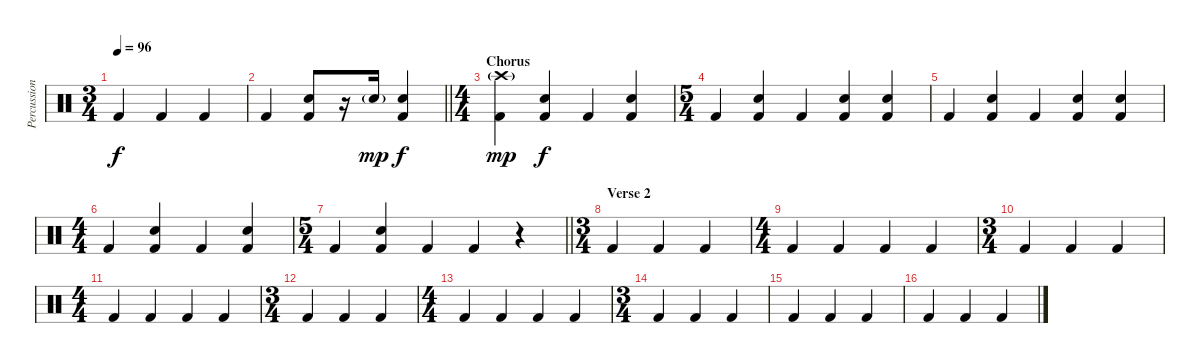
\track ("Percussion" "Percussion") {instrument percussion}
\staff {score}
\articulation defaults
\ts (3 4)
\tempo 96
\clef neutral
\ks c "Kick (hit) 2".4{dy f} "Kick (hit) 2".4 "Kick (hit) 2".4
|
\barLineRight lightlight "Kick (hit) 2".4
("Snare (hit) 2" "Kick (hit) 2").8 r.16 "Snare (hit) 2"{g}.16{dy mp} ("Snare (hit) 2" "Kick (hit) 2").4{dy f} |
\ts (4 4)
\section ("" "Chorus")
("Crash high (hit)"{g} "Kick (hit) 2").4{dy mp} ("Snare (hit) 2" "Kick (hit) 2").4{dy f} "Kick (hit) 2".4 ("Snare (hit) 2" "Kick (hit) 2").4 |
\ts (5 4)
"Kick (hit) 2".4 ("Snare (hit) 2" "Kick (hit) 2").4 "Kick (hit) 2".4 ("Snare (hit) 2" "Kick (hit) 2").4 ("Snare (hit) 2" "Kick (hit) 2").4 |
"Kick (hit) 2".4 ("Snare (hit) 2" "Kick (hit) 2").4 "Kick (hit) 2".4 ("Snare (hit) 2" "Kick (hit) 2").4 ("Snare (hit) 2" "Kick (hit) 2").4 |
\ts (4 4)
"Kick (hit) 2".4 ("Snare (hit) 2" "Kick (hit) 2").4 "Kick (hit) 2".4 ("Snare (hit) 2" "Kick (hit) 2").4 |
\ts (5 4)
\barLineRight lightlight "Kick (hit) 2".4
("Snare (hit) 2" "Kick (hit) 2").4 "Kick (hit) 2".4 "Kick (hit) 2".4 r.4 |
\ts (3 4)
\section ("" "Verse 2")
"Kick (hit) 2".4 "Kick (hit) 2".4 "Kick (hit) 2".4 |
\ts (4 4)
"Kick (hit) 2".4 "Kick (hit) 2".4 "Kick (hit) 2".4 "Kick (hit) 2".4 |
\ts (3 4)
"Kick (hit) 2".4 "Kick (hit) 2".4 "Kick (hit) 2".4 |
\ts (4 4)
"Kick (hit) 2".4 "Kick (hit) 2".4 "Kick (hit) 2".4 "Kick (hit) 2".4 |
\ts (3 4)
"Kick (hit) 2".4 "Kick (hit) 2".4 "Kick (hit) 2".4 |
\ts (4 4)
"Kick (hit) 2".4 "Kick (hit) 2".4 "Kick (hit) 2".4 "Kick (hit) 2".4 |
\ts (3 4)
"Kick (hit) 2".4 "Kick (hit) 2".4 "Kick (hit) 2".4 |
"Kick (hit) 2".4 "Kick (hit) 2".4 "Kick (hit) 2".4 |
"Kick (hit) 2".4 "Kick (hit) 2".4 "Kick (hit) 2".4
